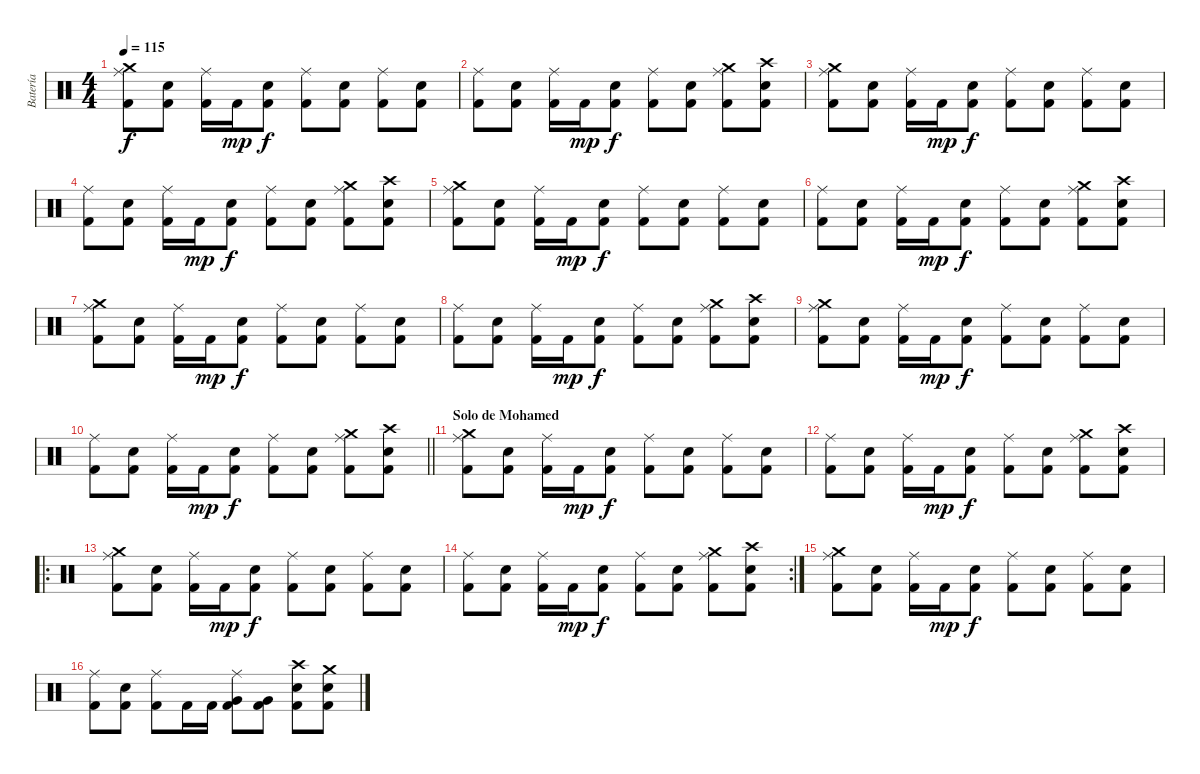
\track ("Batería" "Batería") {instrument percussion}
\staff {score}
\articulation defaults
\ts (4 4)
\tempo 115
\clef neutral
\ks c
("Ride (middle)" "Crash medium (hit)" "Kick (hit) 2").8{dy f} ("Snare (hit) 2" "Kick (hit) 2").8 ("Ride (middle)" "Kick (hit) 2").16 "Kick (hit) 2".16{dy mp} ("Snare (hit) 2" "Kick (hit) 2").8{dy f} ("Ride (middle)" "Kick (hit) 2").8 ("Snare (hit) 2" "Kick (hit) 2").8 ("Ride (middle)" "Kick (hit) 2").8 ("Snare (hit) 2" "Kick (hit) 2").8 |
("Ride (middle)" "Kick (hit) 2").8 ("Snare (hit) 2" "Kick (hit) 2").8 ("Ride (middle)" "Kick (hit) 2").16 "Kick (hit) 2".16{dy mp} ("Snare (hit) 2" "Kick (hit) 2").8{dy f} ("Ride (middle)" "Kick (hit) 2").8 ("Snare (hit) 2" "Kick (hit) 2").8 ("Crash medium (hit)" "Ride (middle)" "Kick (hit) 2").8 ("Crash high (hit)" "Snare (hit) 2" "Kick (hit) 2").8 |
("Ride (middle)" "Crash medium (hit)" "Kick (hit) 2").8 ("Snare (hit) 2" "Kick (hit) 2").8 ("Ride (middle)" "Kick (hit) 2").16 "Kick (hit) 2".16{dy mp} ("Snare (hit) 2" "Kick (hit) 2").8{dy f} ("Ride (middle)" "Kick (hit) 2").8 ("Snare (hit) 2" "Kick (hit) 2").8 ("Ride (middle)" "Kick (hit) 2").8 ("Snare (hit) 2" "Kick (hit) 2").8 |
("Ride (middle)" "Kick (hit) 2").8 ("Snare (hit) 2" "Kick (hit) 2").8 ("Ride (middle)" "Kick (hit) 2").16 "Kick (hit) 2".16{dy mp} ("Snare (hit) 2" "Kick (hit) 2").8{dy f} ("Ride (middle)" "Kick (hit) 2").8 ("Snare (hit) 2" "Kick (hit) 2").8 ("Crash medium (hit)" "Ride (middle)" "Kick (hit) 2").8 ("Crash high (hit)" "Snare (hit) 2" "Kick (hit) 2").8 |
("Ride (middle)" "Crash medium (hit)" "Kick (hit) 2").8 ("Snare (hit) 2" "Kick (hit) 2").8 ("Ride (middle)" "Kick (hit) 2").16 "Kick (hit) 2".16{dy mp} ("Snare (hit) 2" "Kick (hit) 2").8{dy f} ("Ride (middle)" "Kick (hit) 2").8 ("Snare (hit) 2" "Kick (hit) 2").8 ("Ride (middle)" "Kick (hit) 2").8 ("Snare (hit) 2" "Kick (hit) 2").8 |
("Ride (middle)" "Kick (hit) 2").8 ("Snare (hit) 2" "Kick (hit) 2").8 ("Ride (middle)" "Kick (hit) 2").16 "Kick (hit) 2".16{dy mp} ("Snare (hit) 2" "Kick (hit) 2").8{dy f} ("Ride (middle)" "Kick (hit) 2").8 ("Snare (hit) 2" "Kick (hit) 2").8 ("Crash medium (hit)" "Ride (middle)" "Kick (hit) 2").8 ("Crash high (hit)" "Snare (hit) 2" "Kick (hit) 2").8 |
("Ride (middle)" "Crash medium (hit)" "Kick (hit) 2").8 ("Snare (hit) 2" "Kick (hit) 2").8 ("Ride (middle)" "Kick (hit) 2").16 "Kick (hit) 2".16{dy mp} ("Snare (hit) 2" "Kick (hit) 2").8{dy f} ("Ride (middle)" "Kick (hit) 2").8 ("Snare (hit) 2" "Kick (hit) 2").8 ("Ride (middle)" "Kick (hit) 2").8 ("Snare (hit) 2" "Kick (hit) 2").8 |
("Ride (middle)" "Kick (hit) 2").8 ("Snare (hit) 2" "Kick (hit) 2").8 ("Ride (middle)" "Kick (hit) 2").16 "Kick (hit) 2".16{dy mp} ("Snare (hit) 2" "Kick (hit) 2").8{dy f} ("Ride (middle)" "Kick (hit) 2").8 ("Snare (hit) 2" "Kick (hit) 2").8 ("Crash medium (hit)" "Ride (middle)" "Kick (hit) 2").8 ("Crash high (hit)" "Snare (hit) 2" "Kick (hit) 2").8 |
("Ride (middle)" "Crash medium (hit)" "Kick (hit) 2").8 ("Snare (hit) 2" "Kick (hit) 2").8 ("Ride (middle)" "Kick (hit) 2").16 "Kick (hit) 2".16{dy mp} ("Snare (hit) 2" "Kick (hit) 2").8{dy f} ("Ride (middle)" "Kick (hit) 2").8 ("Snare (hit) 2" "Kick (hit) 2").8 ("Ride (middle)" "Kick (hit) 2").8 ("Snare (hit) 2" "Kick (hit) 2").8 |
\barLineRight lightlight
("Ride (middle)" "Kick (hit) 2").8 ("Snare (hit) 2" "Kick (hit) 2").8 ("Ride (middle)" "Kick (hit) 2").16 "Kick (hit) 2".16{dy mp} ("Snare (hit) 2" "Kick (hit) 2").8{dy f} ("Ride (middle)" "Kick (hit) 2").8 ("Snare (hit) 2" "Kick (hit) 2").8 ("Crash medium (hit)" "Ride (middle)" "Kick (hit) 2").8 ("Crash high (hit)" "Snare (hit) 2" "Kick (hit) 2").8 |
\section ("" "Solo de Mohamed")
("Ride (middle)" "Crash medium (hit)" "Kick (hit) 2").8 ("Snare (hit) 2" "Kick (hit) 2").8 ("Ride (middle)" "Kick (hit) 2").16 "Kick (hit) 2".16{dy mp} ("Snare (hit) 2" "Kick (hit) 2").8{dy f} ("Ride (middle)" "Kick (hit) 2").8 ("Snare (hit) 2" "Kick (hit) 2").8 ("Ride (middle)" "Kick (hit) 2").8 ("Snare (hit) 2" "Kick (hit) 2").8 |
("Ride (middle)" "Kick (hit) 2").8 ("Snare (hit) 2" "Kick (hit) 2").8 ("Ride (middle)" "Kick (hit) 2").16 "Kick (hit) 2".16{dy mp} ("Snare (hit) 2" "Kick (hit) 2").8{dy f} ("Ride (middle)" "Kick (hit) 2").8 ("Snare (hit) 2" "Kick (hit) 2").8 ("Crash medium (hit)" "Ride (middle)" "Kick (hit) 2").8 ("Crash high (hit)" "Snare (hit) 2" "Kick (hit) 2").8 |
\ro
("Ride (middle)" "Crash medium (hit)" "Kick (hit) 2").8 ("Snare (hit) 2" "Kick (hit) 2").8 ("Ride (middle)" "Kick (hit) 2").16 "Kick (hit) 2".16{dy mp} ("Snare (hit) 2" "Kick (hit) 2").8{dy f} ("Ride (middle)" "Kick (hit) 2").8 ("Snare (hit) 2" "Kick (hit) 2").8 ("Ride (middle)" "Kick (hit) 2").8 ("Snare (hit) 2" "Kick (hit) 2").8 |
\rc 2
("Ride (middle)" "Kick (hit) 2").8 ("Snare (hit) 2" "Kick (hit) 2").8 ("Ride (middle)" "Kick (hit) 2").16 "Kick (hit) 2".16{dy mp} ("Snare (hit) 2" "Kick (hit) 2").8{dy f} ("Ride (middle)" "Kick (hit) 2").8 ("Snare (hit) 2" "Kick (hit) 2").8 ("Crash medium (hit)" "Ride (middle)" "Kick (hit) 2").8 ("Crash high (hit)" "Snare (hit) 2" "Kick (hit) 2").8 |
("Ride (middle)" "Crash medium (hit)" "Kick (hit) 2").8 ("Snare (hit) 2" "Kick (hit) 2").8 ("Ride (middle)" "Kick (hit) 2").16 "Kick (hit) 2".16{dy mp} ("Snare (hit) 2" "Kick (hit) 2").8{dy f} ("Ride (middle)" "Kick (hit) 2").8 ("Snare (hit) 2" "Kick (hit) 2").8 ("Ride (middle)" "Kick (hit) 2").8 ("Snare (hit) 2" "Kick (hit) 2").8 |
("Ride (middle)" "Kick (hit) 2").8 ("Snare (hit) 2" "Kick (hit) 2").8 ("Ride (middle)" "Kick (hit) 2").8 "Kick (hit) 2".16 "Kick (hit) 2".16 ("Ride (middle)" "Very Low Tom (hit)" "Kick (hit) 2").8 ("Very Low Tom (hit)" "Kick (hit) 2").8 ("Crash high (hit)" "Snare (hit) 2" "Kick (hit) 2").8 ("Crash medium (hit)" "Snare (hit) 2" "Kick (hit) 2").8
